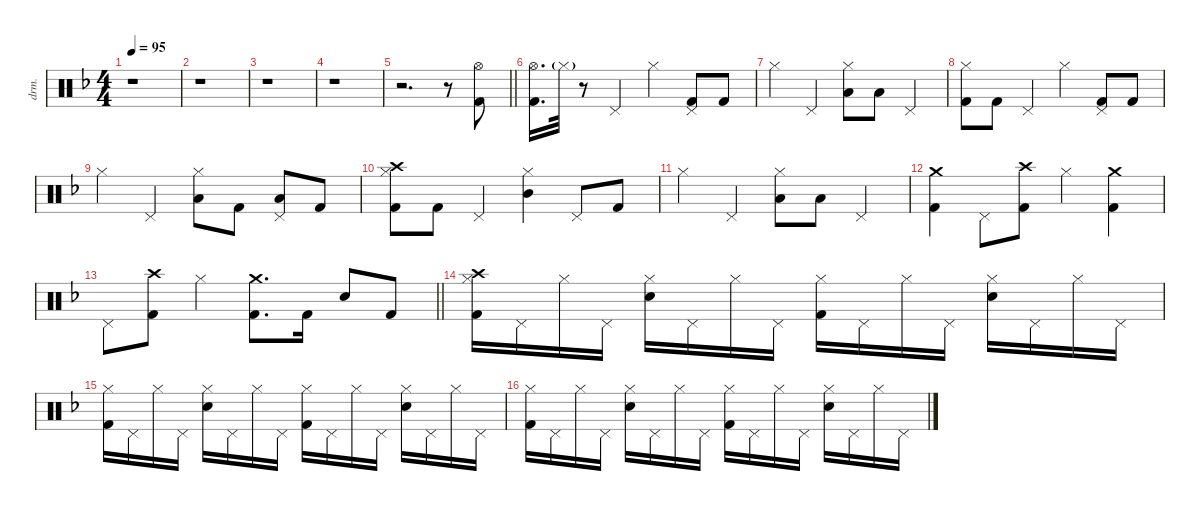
\defaultSystemsLayout 4
\hideDynamics
\bracketExtendMode nobrackets
\track ("Jukka" "drm.") {instrument percussion}
\staff {score}
\articulation defaults
\ts (4 4)
\tempo 95
\clef neutral
\ks f
r.1{dy mf} |
r.1 |
r.1 |
r.1 |
\barLineRight lightlight
r.2{d} r.8 ("Hi-Hat (open)"{acc forcenatural} "Kick (hit) 2"{acc forcenatural}).8 |
("Hi-Hat (open)"{acc forcenatural} "Kick (hit) 2"{acc forcenatural}).16{d dy f} "Hi-Hat (closed)"{g acc forcenatural}.32{dy p} r.8 "Pedal Hi-Hat (hit)"{acc forcenatural}.4{dy f} "Hi-Hat (closed)"{acc forcenatural}.4 ("Pedal Hi-Hat (hit)"{acc forcenatural} "Kick (hit) 2"{acc forcenatural}).8 "Kick (hit) 2"{acc forcenatural}.8 |
"Hi-Hat (closed)"{acc forcenatural}.4 "Pedal Hi-Hat (hit)"{acc forcenatural}.4 ("Hi-Hat (closed)"{acc forcenatural} "Low Tom (hit)"{acc forcenatural}).8 "Low Floor Tom (hit)"{acc forcenatural}.8{dy mf} "Pedal Hi-Hat (hit)"{acc forcenatural}.4{dy f} |
("Hi-Hat (closed)"{acc forcenatural} "Kick (hit) 2"{acc forcenatural}).8 "Kick (hit) 2"{acc forcenatural}.8 "Pedal Hi-Hat (hit)"{acc forcenatural}.4 "Hi-Hat (closed)"{acc forcenatural}.4 ("Pedal Hi-Hat (hit)"{acc forcenatural} "Kick (hit) 2"{acc forcenatural}).8 "Kick (hit) 2"{acc forcenatural}.8 |
"Hi-Hat (closed)"{acc forcenatural}.4 "Pedal Hi-Hat (hit)"{acc forcenatural}.4 ("Hi-Hat (closed)"{acc forcenatural} "Low Tom (hit)"{acc forcenatural}).8 "Kick (hit) 2"{acc forcenatural}.8 ("Pedal Hi-Hat (hit)"{acc forcenatural} "Low Floor Tom (hit)"{acc forcenatural}).8 "Kick (hit) 2"{acc forcenatural}.8 |
("Hi-Hat (closed)"{acc forcenatural} "Crash high (hit)"{acc forcenatural} "Kick (hit) 2"{acc forcenatural}).8 "Kick (hit) 2"{acc forcenatural}.8 "Pedal Hi-Hat (hit)"{acc forcenatural}.4 ("Hi-Hat (closed)"{acc forcenatural} "Mid Tom (hit)"{acc forcenatural}).4 "Pedal Hi-Hat (hit)"{acc forcenatural}.8 "Kick (hit) 2"{acc forcenatural}.8 |
"Hi-Hat (closed)"{acc forcenatural}.4 "Pedal Hi-Hat (hit)"{acc forcenatural}.4 ("Hi-Hat (closed)"{acc forcenatural} "Low Tom (hit)"{acc forcenatural}).8 "Low Floor Tom (hit)"{acc forcenatural}.8{dy mf} "Pedal Hi-Hat (hit)"{acc forcenatural}.4{dy f} |
("Crash medium (hit)"{acc forcenatural} "Kick (hit) 2"{acc forcenatural}).4{dy mf} "Pedal Hi-Hat (hit)"{acc forcenatural}.8{dy f} ("Crash high (hit)"{acc forcenatural} "Kick (hit) 2"{acc forcenatural}).8{dy mf} "Hi-Hat (closed)"{acc forcenatural}.4{dy f} ("Crash medium (hit)"{acc forcenatural} "Kick (hit) 2"{acc forcenatural}).4{dy mf} |
\barLineRight lightlight "Pedal Hi-Hat (hit)"{acc forcenatural}.8{dy f}
("Crash high (hit)"{acc forcenatural} "Kick (hit) 2"{acc forcenatural}).8{dy mf} "Hi-Hat (closed)"{acc forcenatural}.4{dy f} ("Crash medium (hit)"{acc forcenatural} "Kick (hit) 2"{acc forcenatural}).8{d dy mf} "Kick (hit) 2"{acc forcenatural}.16{dy f} "Snare (hit) 2"{acc forcenatural}.8 "Kick (hit) 2"{acc forcenatural}.8 |
("Crash high (hit)"{acc forcenatural} "Hi-Hat (closed)"{acc forcenatural} "Kick (hit) 2"{acc forcenatural}).16 "Pedal Hi-Hat (hit)"{acc forcenatural}.16{dy mp} "Hi-Hat (closed)"{acc forcenatural}.16{dy mf} "Pedal Hi-Hat (hit)"{acc forcenatural}.16{dy mp} ("Hi-Hat (closed)"{acc forcenatural} "Snare (hit) 2"{acc forcenatural}).16{dy mf} "Pedal Hi-Hat (hit)"{acc forcenatural}.16{dy mp} "Hi-Hat (closed)"{acc forcenatural}.16{dy mf} "Pedal Hi-Hat (hit)"{acc forcenatural}.16{dy mp} ("Hi-Hat (closed)"{acc forcenatural} "Kick (hit) 2"{acc forcenatural}).16{dy mf} "Pedal Hi-Hat (hit)"{acc forcenatural}.16{dy mp} "Hi-Hat (closed)"{acc forcenatural}.16{dy mf} "Pedal Hi-Hat (hit)"{acc forcenatural}.16{dy mp} ("Hi-Hat (closed)"{acc forcenatural} "Snare (hit) 2"{acc forcenatural}).16{dy mf} "Pedal Hi-Hat (hit)"{acc forcenatural}.16{dy mp} "Hi-Hat (closed)"{acc forcenatural}.16{dy mf} "Pedal Hi-Hat (hit)"{acc forcenatural}.16{dy mp} |
("Hi-Hat (closed)"{acc forcenatural} "Kick (hit) 2"{acc forcenatural}).16{dy mf} "Pedal Hi-Hat (hit)"{acc forcenatural}.16{dy mp} "Hi-Hat (closed)"{acc forcenatural}.16{dy mf} "Pedal Hi-Hat (hit)"{acc forcenatural}.16{dy mp} ("Hi-Hat (closed)"{acc forcenatural} "Snare (hit) 2"{acc forcenatural}).16{dy mf} "Pedal Hi-Hat (hit)"{acc forcenatural}.16{dy mp} "Hi-Hat (closed)"{acc forcenatural}.16{dy mf} "Pedal Hi-Hat (hit)"{acc forcenatural}.16{dy mp} ("Hi-Hat (closed)"{acc forcenatural} "Kick (hit) 2"{acc forcenatural}).16{dy mf} "Pedal Hi-Hat (hit)"{acc forcenatural}.16{dy mp} "Hi-Hat (closed)"{acc forcenatural}.16{dy mf} "Pedal Hi-Hat (hit)"{acc forcenatural}.16{dy mp} ("Hi-Hat (closed)"{acc forcenatural} "Snare (hit) 2"{acc forcenatural}).16{dy mf} "Pedal Hi-Hat (hit)"{acc forcenatural}.16{dy mp} "Hi-Hat (closed)"{acc forcenatural}.16{dy mf} "Pedal Hi-Hat (hit)"{acc forcenatural}.16{dy mp} |
("Hi-Hat (closed)"{acc forcenatural} "Kick (hit) 2"{acc forcenatural}).16{dy mf} "Pedal Hi-Hat (hit)"{acc forcenatural}.16{dy mp} "Hi-Hat (closed)"{acc forcenatural}.16{dy mf} "Pedal Hi-Hat (hit)"{acc forcenatural}.16{dy mp} ("Hi-Hat (closed)"{acc forcenatural} "Snare (hit) 2"{acc forcenatural}).16{dy mf} "Pedal Hi-Hat (hit)"{acc forcenatural}.16{dy mp} "Hi-Hat (closed)"{acc forcenatural}.16{dy mf} "Pedal Hi-Hat (hit)"{acc forcenatural}.16{dy mp} ("Hi-Hat (closed)"{acc forcenatural} "Kick (hit) 2"{acc forcenatural}).16{dy mf} "Pedal Hi-Hat (hit)"{acc forcenatural}.16{dy mp} "Hi-Hat (closed)"{acc forcenatural}.16{dy mf} "Pedal Hi-Hat (hit)"{acc forcenatural}.16{dy mp} ("Hi-Hat (closed)"{acc forcenatural} "Snare (hit) 2"{acc forcenatural}).16{dy mf} "Pedal Hi-Hat (hit)"{acc forcenatural}.16{dy mp} "Hi-Hat (closed)"{acc forcenatural}.16{dy mf} "Pedal Hi-Hat (hit)"{acc forcenatural}.16{dy mp}
